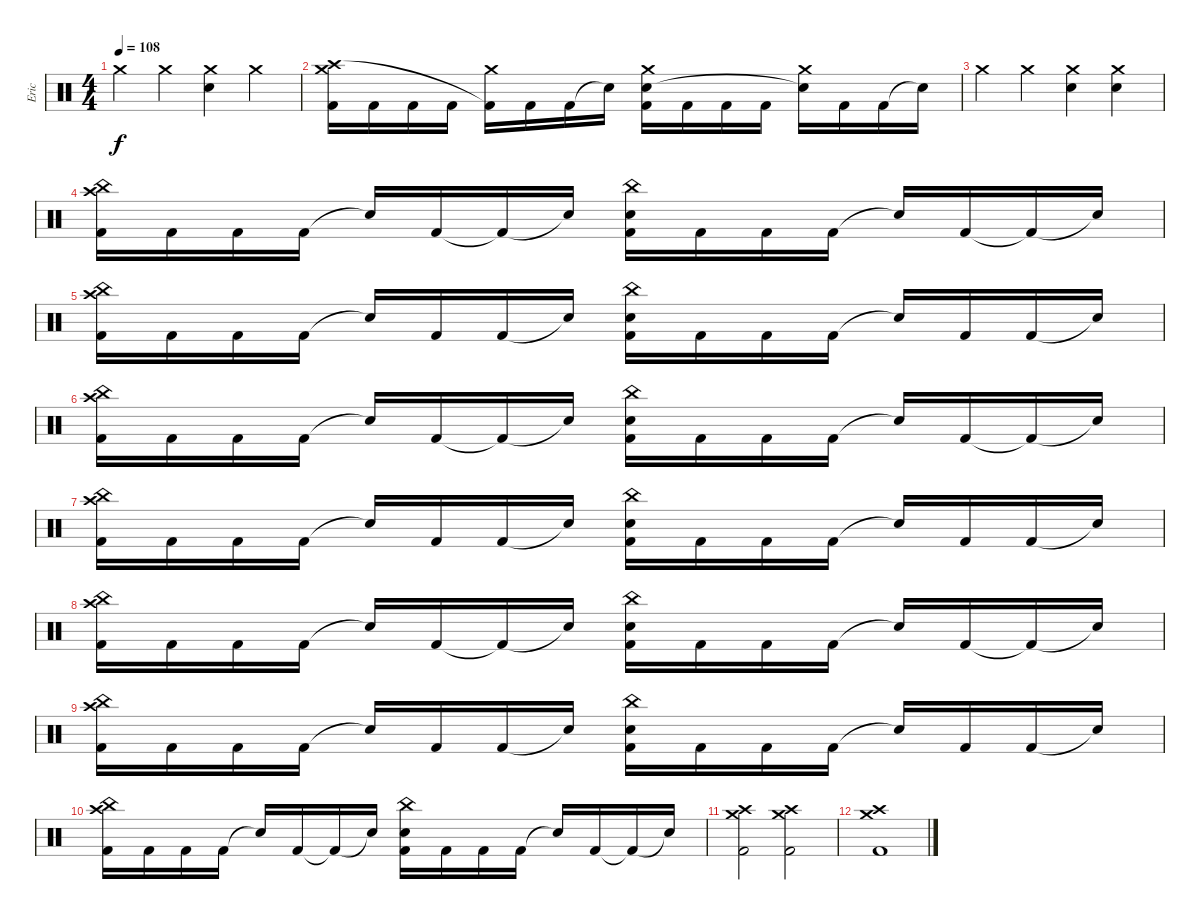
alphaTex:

\track ("Eric" "Eric") {instrument percussion}
\staff {score}
\articulation defaults
\ts (4 4)
\tempo 108
\clef neutral
\ks c "Crash medium (hit)".4{dy f} "Crash medium (hit)".4
("Crash medium (hit)" "Electric Snare (hit)").4 "Crash medium (hit)".4 |
("Crash medium (hit)" "Crash high (hit)" "Kick (hit) 2").16 "Kick (hit) 2".16 "Kick (hit) 2".16 "Kick (hit) 2".16 ("Crash medium (hit)" "Kick (hit) 2"{t}).16 "Kick (hit) 2".16 "Kick (hit) 2".16 "Snare (hit)"{t}.16 ("Crash medium (hit)" "Electric Snare (hit)" "Kick (hit) 2").16 "Kick (hit) 2".16 "Kick (hit) 2".16 "Kick (hit) 2".16 ("Crash medium (hit)" "Snare (hit)"{t}).16 "Kick (hit) 2".16 "Kick (hit) 2".16 "Snare (hit)"{t}.16 |
"Crash medium (hit)".4 "Crash medium (hit)".4 ("Crash medium (hit)" "Electric Snare (hit)").4 ("Crash medium (hit)" "Electric Snare (hit)").4 |
("Crash high (hit)" "China (hit)" "Kick (hit) 2").16 "Kick (hit) 2".16 "Kick (hit) 2".16 "Kick (hit) 2".16 "Snare (hit)"{t}.16 "Kick (hit) 2".16 "Kick (hit) 2"{t}.16 "Snare (hit)"{t}.16 ("China (hit)" "Electric Snare (hit)" "Kick (hit) 2").16 "Kick (hit) 2".16 "Kick (hit) 2".16 "Kick (hit) 2".16 "Snare (hit)"{t}.16 "Kick (hit) 2".16 "Kick (hit) 2"{t}.16 "Snare (hit)"{t}.16 |
("China (hit)" "Crash high (hit)" "Kick (hit) 2").16 "Kick (hit) 2".16 "Kick (hit) 2".16 "Kick (hit) 2".16 "Snare (hit)"{t}.16 "Kick (hit) 2".16 "Kick (hit) 2".16 "Snare (hit)"{t}.16 ("China (hit)" "Electric Snare (hit)" "Kick (hit) 2").16 "Kick (hit) 2".16 "Kick (hit) 2".16 "Kick (hit) 2".16 "Snare (hit)"{t}.16 "Kick (hit) 2".16 "Kick (hit) 2".16 "Snare (hit)"{t}.16 |
("Crash high (hit)" "China (hit)" "Kick (hit) 2").16 "Kick (hit) 2".16 "Kick (hit) 2".16 "Kick (hit) 2".16 "Snare (hit)"{t}.16 "Kick (hit) 2".16 "Kick (hit) 2"{t}.16 "Snare (hit)"{t}.16 ("China (hit)" "Electric Snare (hit)" "Kick (hit) 2").16 "Kick (hit) 2".16 "Kick (hit) 2".16 "Kick (hit) 2".16 "Snare (hit)"{t}.16 "Kick (hit) 2".16 "Kick (hit) 2"{t}.16 "Snare (hit)"{t}.16 |
("China (hit)" "Crash high (hit)" "Kick (hit) 2").16 "Kick (hit) 2".16 "Kick (hit) 2".16 "Kick (hit) 2".16 "Snare (hit)"{t}.16 "Kick (hit) 2".16 "Kick (hit) 2".16 "Snare (hit)"{t}.16 ("China (hit)" "Electric Snare (hit)" "Kick (hit) 2").16 "Kick (hit) 2".16 "Kick (hit) 2".16 "Kick (hit) 2".16 "Snare (hit)"{t}.16 "Kick (hit) 2".16 "Kick (hit) 2".16 "Snare (hit)"{t}.16 |
("Crash high (hit)" "China (hit)" "Kick (hit) 2").16 "Kick (hit) 2".16 "Kick (hit) 2".16 "Kick (hit) 2".16 "Snare (hit)"{t}.16 "Kick (hit) 2".16 "Kick (hit) 2"{t}.16 "Snare (hit)"{t}.16 ("China (hit)" "Electric Snare (hit)" "Kick (hit) 2").16 "Kick (hit) 2".16 "Kick (hit) 2".16 "Kick (hit) 2".16 "Snare (hit)"{t}.16 "Kick (hit) 2".16 "Kick (hit) 2"{t}.16 "Snare (hit)"{t}.16 |
("China (hit)" "Crash high (hit)" "Kick (hit) 2").16 "Kick (hit) 2".16 "Kick (hit) 2".16 "Kick (hit) 2".16 "Snare (hit)"{t}.16 "Kick (hit) 2".16 "Kick (hit) 2".16 "Snare (hit)"{t}.16 ("China (hit)" "Electric Snare (hit)" "Kick (hit) 2").16 "Kick (hit) 2".16 "Kick (hit) 2".16 "Kick (hit) 2".16 "Snare (hit)"{t}.16 "Kick (hit) 2".16 "Kick (hit) 2".16 "Snare (hit)"{t}.16 |
("Crash high (hit)" "China (hit)" "Kick (hit) 2").16 "Kick (hit) 2".16 "Kick (hit) 2".16 "Kick (hit) 2".16 "Snare (hit)"{t}.16 "Kick (hit) 2".16 "Kick (hit) 2"{t}.16 "Snare (hit)"{t}.16 ("China (hit)" "Electric Snare (hit)" "Kick (hit) 2").16 "Kick (hit) 2".16 "Kick (hit) 2".16 "Kick (hit) 2".16 "Snare (hit)"{t}.16 "Kick (hit) 2".16 "Kick (hit) 2"{t}.16 "Snare (hit)"{t}.16 |
("Crash medium (hit)" "Crash high (hit)" "Kick (hit) 2").2 ("Crash medium (hit)" "Crash high (hit)" "Kick (hit) 2").2 |
("Crash medium (hit)" "Crash high (hit)" "Kick (hit) 2").1
